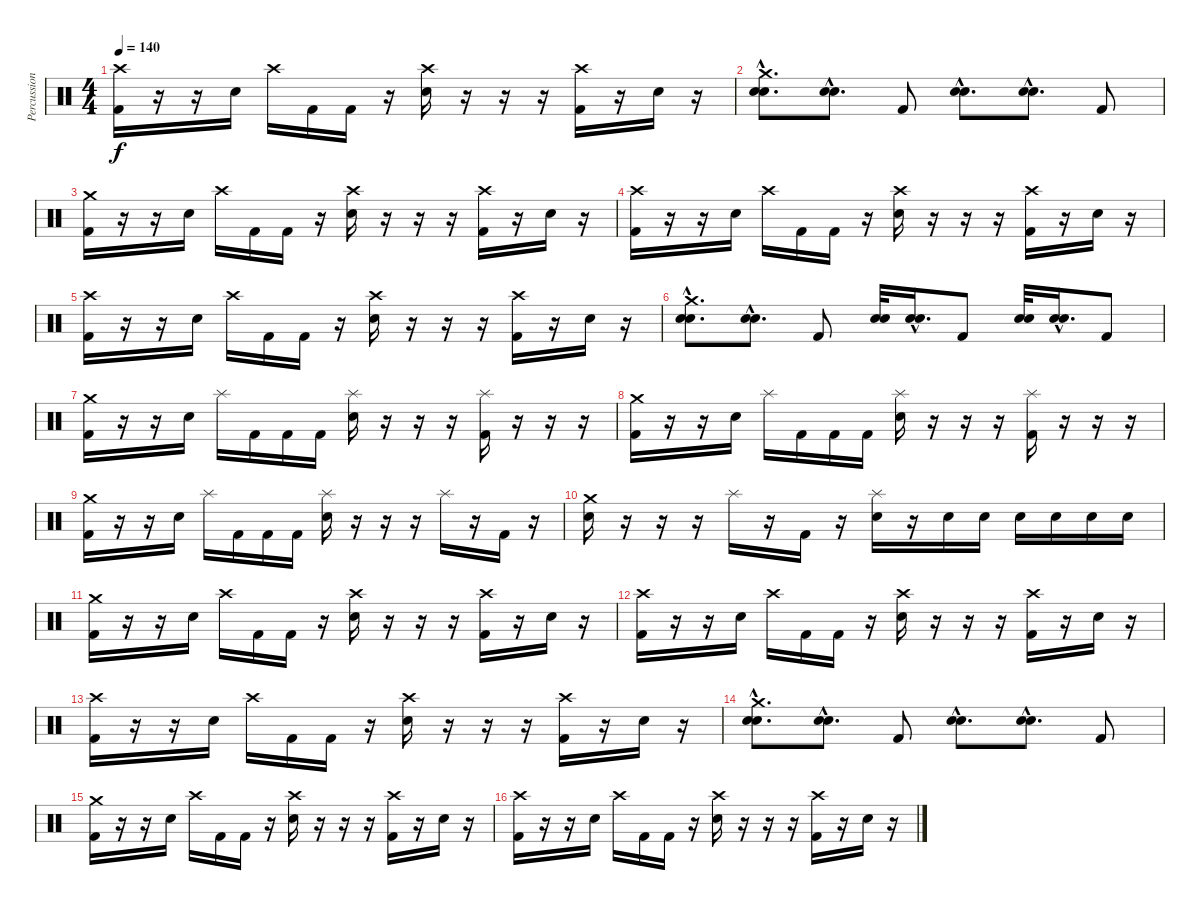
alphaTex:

\track ("Percussion" "Percussion") {instrument percussion}
\staff {score}
\articulation defaults
\ts (4 4)
\tempo 140
\clef neutral
\ks c
("Crash high (hit)" "Kick (hit) 2").16{dy f} r.16 r.16 "Electric Snare (hit)".16 "Crash high (hit)".16 "Kick (hit) 2".16 "Kick (hit) 2".16 r.16 ("Crash high (hit)" "Electric Snare (hit)").16 r.16 r.16 r.16 ("Crash high (hit)" "Kick (hit) 2").16 r.16 "Electric Snare (hit)".16 r.16 |
("Crash medium (hit)"{hac} "Electric Snare (hit)"{hac} "Electric Snare (hit)"{hac}).8{d} ("Electric Snare (hit)"{hac} "Electric Snare (hit)"{hac}).8{d} "Kick (hit) 2".8 ("Electric Snare (hit)"{hac} "Electric Snare (hit)"{hac}).8{d} ("Electric Snare (hit)"{hac} "Electric Snare (hit)"{hac}).8{d} "Kick (hit) 2".8 |
("Crash medium (hit)" "Kick (hit) 2").16 r.16 r.16 "Electric Snare (hit)".16 "Crash high (hit)".16 "Kick (hit) 2".16 "Kick (hit) 2".16 r.16 ("Crash high (hit)" "Electric Snare (hit)").16 r.16 r.16 r.16 ("Crash high (hit)" "Kick (hit) 2").16 r.16 "Electric Snare (hit)".16 r.16 |
("Crash high (hit)" "Kick (hit) 2").16 r.16 r.16 "Electric Snare (hit)".16 "Crash high (hit)".16 "Kick (hit) 2".16 "Kick (hit) 2".16 r.16 ("Crash high (hit)" "Electric Snare (hit)").16 r.16 r.16 r.16 ("Crash high (hit)" "Kick (hit) 2").16 r.16 "Electric Snare (hit)".16 r.16 |
("Crash high (hit)" "Kick (hit) 2").16 r.16 r.16 "Electric Snare (hit)".16 "Crash high (hit)".16 "Kick (hit) 2".16 "Kick (hit) 2".16 r.16 ("Crash high (hit)" "Electric Snare (hit)").16 r.16 r.16 r.16 ("Crash high (hit)" "Kick (hit) 2").16 r.16 "Electric Snare (hit)".16 r.16 |
("Crash medium (hit)"{hac} "Electric Snare (hit)"{hac} "Electric Snare (hit)"{hac}).8{d} ("Electric Snare (hit)"{hac} "Electric Snare (hit)"{hac}).8{d} "Kick (hit) 2".8 ("Electric Snare (hit)" "Electric Snare (hit)").32 ("Electric Snare (hit)"{hac} "Electric Snare (hit)"{hac}).16{d} "Kick (hit) 2".8 ("Electric Snare (hit)" "Electric Snare (hit)").32 ("Electric Snare (hit)"{hac} "Electric Snare (hit)"{hac}).16{d} "Kick (hit) 2".8 |
("Crash medium (hit)" "Kick (hit) 2").16 r.16 r.16 "Electric Snare (hit)".16 "Splash (hit)".16 "Kick (hit) 2".16 "Kick (hit) 2".16 "Kick (hit) 2".16 ("Splash (hit)" "Electric Snare (hit)").16 r.16 r.16 r.16 ("Splash (hit)" "Kick (hit) 2").16 r.16 r.16 r.16 |
("Crash medium (hit)" "Kick (hit) 2").16 r.16 r.16 "Electric Snare (hit)".16 "Splash (hit)".16 "Kick (hit) 2".16 "Kick (hit) 2".16 "Kick (hit) 2".16 ("Splash (hit)" "Electric Snare (hit)").16 r.16 r.16 r.16 ("Splash (hit)" "Kick (hit) 2").16 r.16 r.16 r.16 |
("Crash medium (hit)" "Kick (hit) 2").16 r.16 r.16 "Electric Snare (hit)".16 "Splash (hit)".16 "Kick (hit) 2".16 "Kick (hit) 2".16 "Kick (hit) 2".16 ("Splash (hit)" "Electric Snare (hit)").16 r.16 r.16 r.16 "Splash (hit)".16 r.16 "Kick (hit) 2".16 r.16 |
("Crash medium (hit)" "Electric Snare (hit)").16 r.16 r.16 r.16 "Splash (hit)".16 r.16 "Kick (hit) 2".16 r.16 ("Splash (hit)" "Electric Snare (hit)").16 r.16 "Electric Snare (hit)".16 "Electric Snare (hit)".16 "Electric Snare (hit)".16 "Electric Snare (hit)".16 "Electric Snare (hit)".16 "Electric Snare (hit)".16 |
("Crash medium (hit)" "Kick (hit) 2").16 r.16 r.16 "Electric Snare (hit)".16 "Crash high (hit)".16 "Kick (hit) 2".16 "Kick (hit) 2".16 r.16 ("Crash high (hit)" "Electric Snare (hit)").16 r.16 r.16 r.16 ("Crash high (hit)" "Kick (hit) 2").16 r.16 "Electric Snare (hit)".16 r.16 |
("Crash high (hit)" "Kick (hit) 2").16 r.16 r.16 "Electric Snare (hit)".16 "Crash high (hit)".16 "Kick (hit) 2".16 "Kick (hit) 2".16 r.16 ("Crash high (hit)" "Electric Snare (hit)").16 r.16 r.16 r.16 ("Crash high (hit)" "Kick (hit) 2").16 r.16 "Electric Snare (hit)".16 r.16 |
("Crash high (hit)" "Kick (hit) 2").16 r.16 r.16 "Electric Snare (hit)".16 "Crash high (hit)".16 "Kick (hit) 2".16 "Kick (hit) 2".16 r.16 ("Crash high (hit)" "Electric Snare (hit)").16 r.16 r.16 r.16 ("Crash high (hit)" "Kick (hit) 2").16 r.16 "Electric Snare (hit)".16 r.16 |
("Crash medium (hit)"{hac} "Electric Snare (hit)"{hac} "Electric Snare (hit)"{hac}).8{d} ("Electric Snare (hit)"{hac} "Electric Snare (hit)"{hac}).8{d} "Kick (hit) 2".8 ("Electric Snare (hit)"{hac} "Electric Snare (hit)"{hac}).8{d} ("Electric Snare (hit)"{hac} "Electric Snare (hit)"{hac}).8{d} "Kick (hit) 2".8 |
("Crash medium (hit)" "Kick (hit) 2").16 r.16 r.16 "Electric Snare (hit)".16 "Crash high (hit)".16 "Kick (hit) 2".16 "Kick (hit) 2".16 r.16 ("Crash high (hit)" "Electric Snare (hit)").16 r.16 r.16 r.16 ("Crash high (hit)" "Kick (hit) 2").16 r.16 "Electric Snare (hit)".16 r.16 |
("Crash high (hit)" "Kick (hit) 2").16 r.16 r.16 "Electric Snare (hit)".16 "Crash high (hit)".16 "Kick (hit) 2".16 "Kick (hit) 2".16 r.16 ("Crash high (hit)" "Electric Snare (hit)").16 r.16 r.16 r.16 ("Crash high (hit)" "Kick (hit) 2").16 r.16 "Electric Snare (hit)".16 r.16
